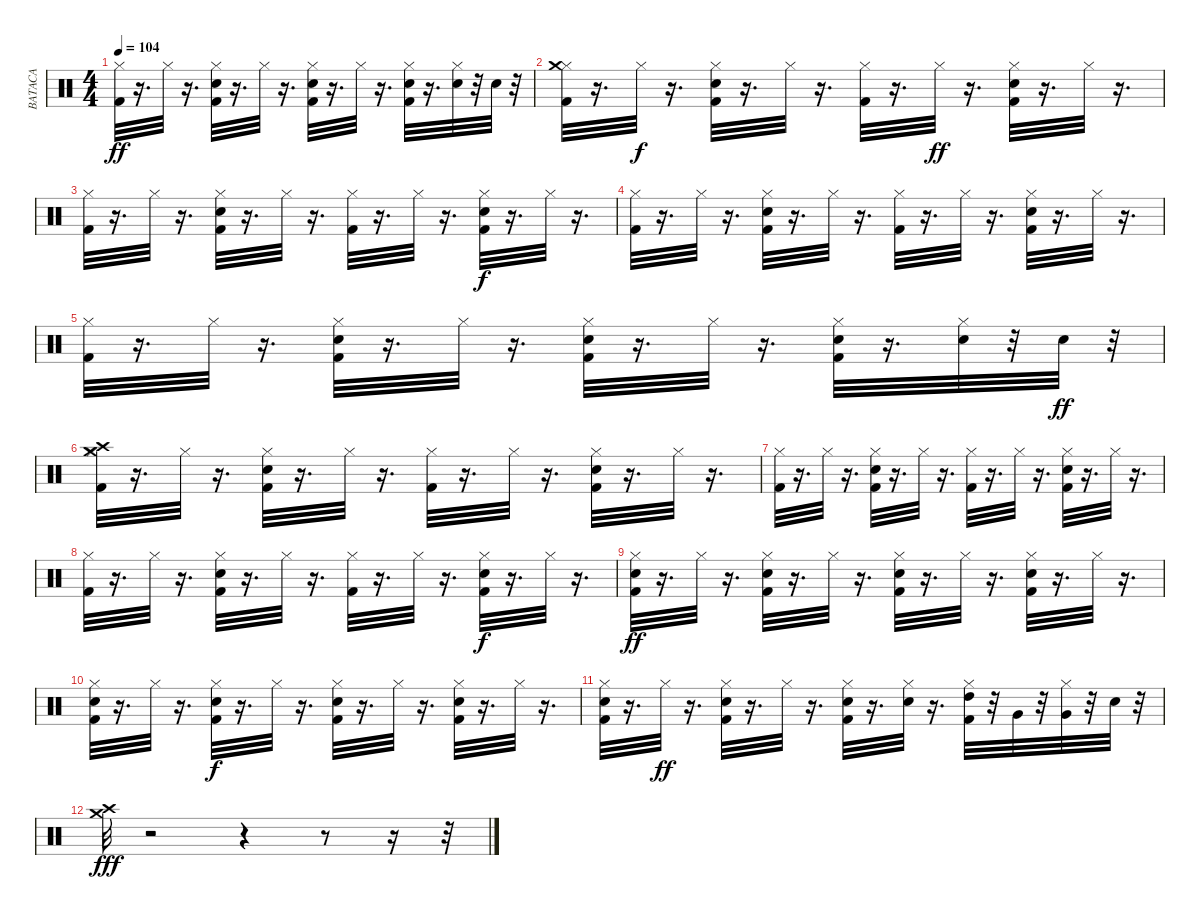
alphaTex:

\track ("BATACA" "BATACA") {instrument percussion}
\staff {score}
\articulation defaults
\ts (4 4)
\tempo 104
\clef neutral
\ks c
("Hi-Hat (closed)" "Kick (hit) 2").32{dy ff} r.16{d} "Hi-Hat (closed)".32 r.16{d} ("Hi-Hat (closed)" "Kick (hit) 2" "Electric Snare (hit)").32 r.16{d} "Hi-Hat (closed)".32 r.16{d} ("Hi-Hat (closed)" "Kick (hit) 2" "Electric Snare (hit)").32 r.16{d} "Hi-Hat (closed)".32 r.16{d} ("Hi-Hat (closed)" "Kick (hit) 2" "Electric Snare (hit)").32 r.16{d} ("Hi-Hat (closed)" "Electric Snare (hit)").32 r.32 "Electric Snare (hit)".32 r.32 |
("Hi-Hat (closed)" "Kick (hit) 2" "Crash medium (hit)").32 r.16{d} "Hi-Hat (closed)".32{dy f} r.16{d} ("Hi-Hat (closed)" "Kick (hit) 2" "Electric Snare (hit)").32 r.16{d} "Hi-Hat (closed)".32 r.16{d} ("Hi-Hat (closed)" "Kick (hit) 2").32 r.16{d} "Hi-Hat (closed)".32{dy ff} r.16{d} ("Hi-Hat (closed)" "Kick (hit) 2" "Electric Snare (hit)").32 r.16{d} "Hi-Hat (closed)".32 r.16{d} |
("Hi-Hat (closed)" "Kick (hit) 2").32 r.16{d} "Hi-Hat (closed)".32 r.16{d} ("Hi-Hat (closed)" "Kick (hit) 2" "Electric Snare (hit)").32 r.16{d} "Hi-Hat (closed)".32 r.16{d} ("Hi-Hat (closed)" "Kick (hit) 2").32 r.16{d} "Hi-Hat (closed)".32 r.16{d} ("Hi-Hat (closed)" "Kick (hit) 2" "Electric Snare (hit)").32{dy f} r.16{d} "Hi-Hat (closed)".32 r.16{d} |
("Hi-Hat (closed)" "Kick (hit) 2").32 r.16{d} "Hi-Hat (closed)".32 r.16{d} ("Hi-Hat (closed)" "Kick (hit) 2" "Electric Snare (hit)").32 r.16{d} "Hi-Hat (closed)".32 r.16{d} ("Hi-Hat (closed)" "Kick (hit) 2").32 r.16{d} "Hi-Hat (closed)".32 r.16{d} ("Hi-Hat (closed)" "Kick (hit) 2" "Electric Snare (hit)").32 r.16{d} "Hi-Hat (closed)".32 r.16{d} |
("Hi-Hat (closed)" "Kick (hit) 2").32 r.16{d} "Hi-Hat (closed)".32 r.16{d} ("Hi-Hat (closed)" "Kick (hit) 2" "Electric Snare (hit)").32 r.16{d} "Hi-Hat (closed)".32 r.16{d} ("Hi-Hat (closed)" "Kick (hit) 2" "Electric Snare (hit)").32 r.16{d} "Hi-Hat (closed)".32 r.16{d} ("Hi-Hat (closed)" "Kick (hit) 2" "Electric Snare (hit)").32 r.16{d} ("Hi-Hat (closed)" "Electric Snare (hit)").32 r.32 "Electric Snare (hit)".32{dy ff} r.32 |
("Hi-Hat (closed)" "Kick (hit) 2" "Crash high (hit)" "Crash medium (hit)").32 r.16{d} "Hi-Hat (closed)".32 r.16{d} ("Hi-Hat (closed)" "Kick (hit) 2" "Electric Snare (hit)").32 r.16{d} "Hi-Hat (closed)".32 r.16{d} ("Hi-Hat (closed)" "Kick (hit) 2").32 r.16{d} "Hi-Hat (closed)".32 r.16{d} ("Hi-Hat (closed)" "Kick (hit) 2" "Electric Snare (hit)").32 r.16{d} "Hi-Hat (closed)".32 r.16{d} |
("Hi-Hat (closed)" "Kick (hit) 2").32 r.16{d} "Hi-Hat (closed)".32 r.16{d} ("Hi-Hat (closed)" "Kick (hit) 2" "Electric Snare (hit)").32 r.16{d} "Hi-Hat (closed)".32 r.16{d} ("Hi-Hat (closed)" "Kick (hit) 2").32 r.16{d} "Hi-Hat (closed)".32 r.16{d} ("Hi-Hat (closed)" "Kick (hit) 2" "Electric Snare (hit)").32 r.16{d} "Hi-Hat (closed)".32 r.16{d} |
("Hi-Hat (closed)" "Kick (hit) 2").32 r.16{d} "Hi-Hat (closed)".32 r.16{d} ("Hi-Hat (closed)" "Kick (hit) 2" "Electric Snare (hit)").32 r.16{d} "Hi-Hat (closed)".32 r.16{d} ("Hi-Hat (closed)" "Kick (hit) 2").32 r.16{d} "Hi-Hat (closed)".32 r.16{d} ("Hi-Hat (closed)" "Kick (hit) 2" "Electric Snare (hit)").32{dy f} r.16{d} "Hi-Hat (closed)".32 r.16{d} |
("Hi-Hat (closed)" "Kick (hit) 2" "Electric Snare (hit)").32{dy ff} r.16{d} "Hi-Hat (closed)".32 r.16{d} ("Hi-Hat (closed)" "Kick (hit) 2" "Electric Snare (hit)").32 r.16{d} "Hi-Hat (closed)".32 r.16{d} ("Hi-Hat (closed)" "Kick (hit) 2" "Electric Snare (hit)").32 r.16{d} "Hi-Hat (closed)".32 r.16{d} ("Hi-Hat (closed)" "Kick (hit) 2" "Electric Snare (hit)").32 r.16{d} "Hi-Hat (closed)".32 r.16{d} |
("Hi-Hat (closed)" "Kick (hit) 2" "Electric Snare (hit)").32 r.16{d} "Hi-Hat (closed)".32 r.16{d} ("Hi-Hat (closed)" "Kick (hit) 2" "Electric Snare (hit)").32{dy f} r.16{d} "Hi-Hat (closed)".32 r.16{d} ("Hi-Hat (closed)" "Kick (hit) 2" "Electric Snare (hit)").32 r.16{d} "Hi-Hat (closed)".32 r.16{d} ("Hi-Hat (closed)" "Kick (hit) 2" "Electric Snare (hit)").32 r.16{d} "Hi-Hat (closed)".32 r.16{d} |
("Hi-Hat (closed)" "Kick (hit) 2" "Electric Snare (hit)").32 r.16{d} "Hi-Hat (closed)".32{dy ff} r.16{d} ("Hi-Hat (closed)" "Kick (hit) 2" "Electric Snare (hit)").32 r.16{d} "Hi-Hat (closed)".32 r.16{d} ("Hi-Hat (closed)" "Kick (hit) 2" "Electric Snare (hit)").32 r.16{d} ("Hi-Hat (closed)" "Electric Snare (hit)").32 r.16{d} ("High Tom (hit)" "Hi-Hat (closed)" "Kick (hit) 2").32 r.32 "Very Low Tom (hit)".32 r.32 ("Hi-Hat (closed)" "Very Low Tom (hit)").32 r.32 "Electric Snare (hit)".32 r.32 |
("Crash high (hit)" "Crash medium (hit)").32{dy fff} r.2 r.4 r.8 r.16 r.32
